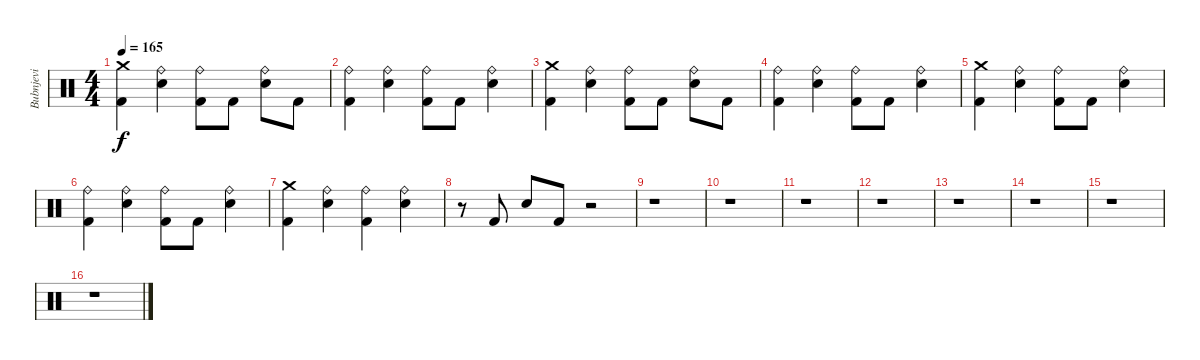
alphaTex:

\track ("Bubnjevi" "Bubnjevi") {instrument percussion}
\staff {score}
\articulation defaults
\ts (4 4)
\tempo 165
\clef neutral
\ks c
("Crash medium (hit)" "Kick (hit) 2").4{dy f} ("Ride (bell)" "Electric Snare (hit)").4 ("Ride (bell)" "Kick (hit) 2").8 "Kick (hit) 2".8 ("Ride (bell)" "Electric Snare (hit)").8 "Kick (hit) 2".8 |
("Ride (bell)" "Kick (hit) 2").4 ("Ride (bell)" "Electric Snare (hit)").4 ("Ride (bell)" "Kick (hit) 2").8 "Kick (hit) 2".8 ("Ride (bell)" "Electric Snare (hit)").4 |
("Crash medium (hit)" "Kick (hit) 2").4 ("Ride (bell)" "Electric Snare (hit)").4 ("Ride (bell)" "Kick (hit) 2").8 "Kick (hit) 2".8 ("Ride (bell)" "Electric Snare (hit)").8 "Kick (hit) 2".8 |
("Ride (bell)" "Kick (hit) 2").4 ("Ride (bell)" "Electric Snare (hit)").4 ("Ride (bell)" "Kick (hit) 2").8 "Kick (hit) 2".8 ("Ride (bell)" "Electric Snare (hit)").4 |
("Crash medium (hit)" "Kick (hit) 2").4 ("Ride (bell)" "Electric Snare (hit)").4 ("Ride (bell)" "Kick (hit) 2").8 "Kick (hit) 2".8 ("Ride (bell)" "Electric Snare (hit)").4 |
("Ride (bell)" "Kick (hit) 2").4 ("Ride (bell)" "Electric Snare (hit)").4 ("Ride (bell)" "Kick (hit) 2").8 "Kick (hit) 2".8 ("Ride (bell)" "Electric Snare (hit)").4 |
("Crash medium (hit)" "Kick (hit) 2").4 ("Ride (bell)" "Electric Snare (hit)").4 ("Ride (bell)" "Kick (hit) 2").4 ("Ride (bell)" "Electric Snare (hit)").4 |
r.8 "Kick (hit) 2".8 "Electric Snare (hit)".8 "Kick (hit) 2".8 r.2 |
r.1 |
r.1 |
r.1 |
r.1 |
r.1 |
r.1 |
r.1 |
r.1
